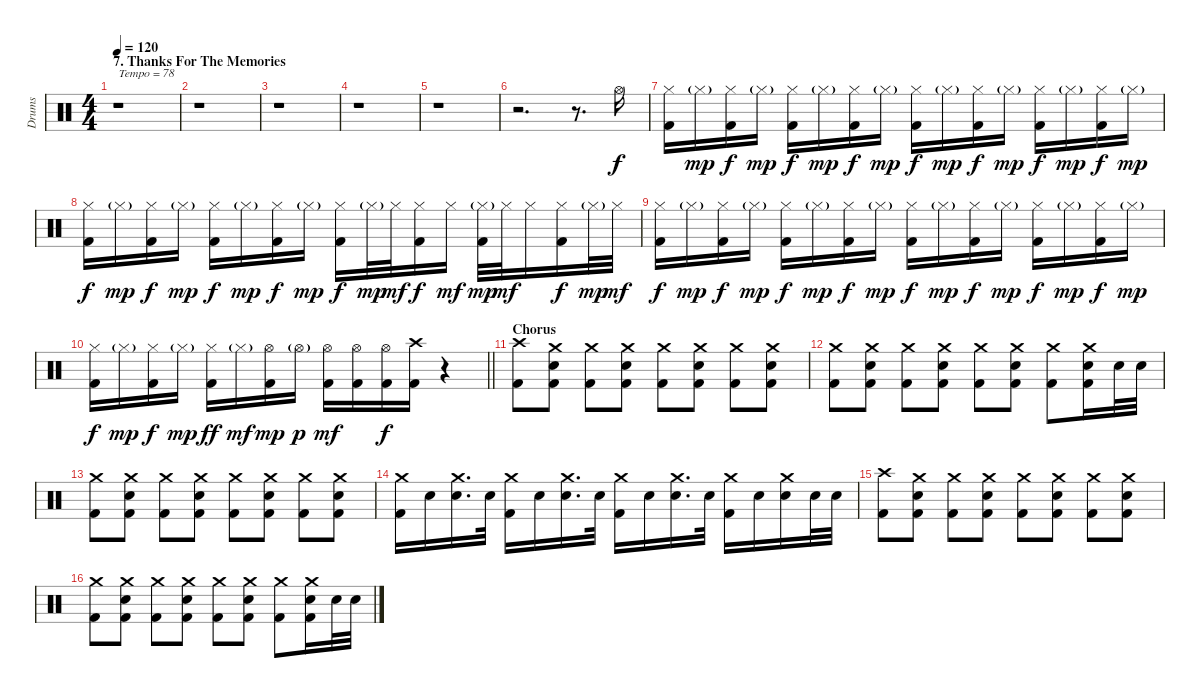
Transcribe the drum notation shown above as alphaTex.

\track ("Drums" "Drums") {instrument percussion}
\staff {score}
\articulation defaults
\ts (4 4)
\section ("" "7. Thanks For The Memories")
\tempo 120
\tempo 78
\tempo 120
\clef neutral
\ks c
r.1{txt "Tempo = 78" dy f} |
r.1 |
r.1 |
r.1 |
r.1 |
r.2{d} r.8{d} "Hi-Hat (open)".16 |
("Hi-Hat (closed)" "Kick (hit) 2").16 "Hi-Hat (closed)"{g}.16{dy mp} ("Hi-Hat (closed)" "Kick (hit) 2").16{dy f} "Hi-Hat (closed)"{g}.16{dy mp} ("Hi-Hat (closed)" "Kick (hit) 2").16{dy f} "Hi-Hat (closed)"{g}.16{dy mp} ("Hi-Hat (closed)" "Kick (hit) 2").16{dy f} "Hi-Hat (closed)"{g}.16{dy mp} ("Hi-Hat (closed)" "Kick (hit) 2").16{dy f} "Hi-Hat (closed)"{g}.16{dy mp} ("Hi-Hat (closed)" "Kick (hit) 2").16{dy f} "Hi-Hat (closed)"{g}.16{dy mp} ("Hi-Hat (closed)" "Kick (hit) 2").16{dy f} "Hi-Hat (closed)"{g}.16{dy mp} ("Hi-Hat (closed)" "Kick (hit) 2").16{dy f} "Hi-Hat (closed)"{g}.16{dy mp} |
("Hi-Hat (closed)" "Kick (hit) 2").16{dy f} "Hi-Hat (closed)"{g}.16{dy mp} ("Hi-Hat (closed)" "Kick (hit) 2").16{dy f} "Hi-Hat (closed)"{g}.16{dy mp} ("Hi-Hat (closed)" "Kick (hit) 2").16{dy f} "Hi-Hat (closed)"{g}.16{dy mp} ("Hi-Hat (closed)" "Kick (hit) 2").16{dy f} "Hi-Hat (closed)"{g}.16{dy mp} ("Hi-Hat (closed)" "Kick (hit) 2").16{dy f} "Hi-Hat (closed)"{g}.32{dy mp} "Hi-Hat (closed)".32{dy mf} ("Hi-Hat (closed)" "Kick (hit) 2").16{dy f} "Hi-Hat (closed)".16{dy mf} ("Hi-Hat (closed)"{g} "Kick (hit) 2").32{dy mp} "Hi-Hat (closed)".32{dy mf} "Hi-Hat (closed)".16 ("Hi-Hat (closed)" "Kick (hit) 2").16{dy f} "Hi-Hat (closed)"{g}.32{dy mp} "Hi-Hat (closed)".32{dy mf} |
("Hi-Hat (closed)" "Kick (hit) 2").16{dy f} "Hi-Hat (closed)"{g}.16{dy mp} ("Hi-Hat (closed)" "Kick (hit) 2").16{dy f} "Hi-Hat (closed)"{g}.16{dy mp} ("Hi-Hat (closed)" "Kick (hit) 2").16{dy f} "Hi-Hat (closed)"{g}.16{dy mp} ("Hi-Hat (closed)" "Kick (hit) 2").16{dy f} "Hi-Hat (closed)"{g}.16{dy mp} ("Hi-Hat (closed)" "Kick (hit) 2").16{dy f} "Hi-Hat (closed)"{g}.16{dy mp} ("Hi-Hat (closed)" "Kick (hit) 2").16{dy f} "Hi-Hat (closed)"{g}.16{dy mp} ("Hi-Hat (closed)" "Kick (hit) 2").16{dy f} "Hi-Hat (closed)"{g}.16{dy mp} ("Hi-Hat (closed)" "Kick (hit) 2").16{dy f} "Hi-Hat (closed)"{g}.16{dy mp} |
\barLineRight lightlight
("Hi-Hat (closed)" "Kick (hit) 2").16{dy f} "Hi-Hat (closed)"{g}.16{dy mp} ("Hi-Hat (closed)" "Kick (hit) 2").16{dy f} "Hi-Hat (closed)"{g}.16{dy mp} ("Hi-Hat (closed)" "Kick (hit) 2").16{dy ff} "Hi-Hat (closed)"{g}.16{dy mf} ("Hi-Hat (open)" "Kick (hit) 2").16{dy mp} "Hi-Hat (open)"{g}.16{dy p} ("Hi-Hat (open)" "Kick (hit) 2").16{dy mf} ("Hi-Hat (open)" "Kick (hit) 2").16 ("Hi-Hat (open)" "Kick (hit) 2").16{dy f} ("Crash high (hit)" "Kick (hit) 2").16 r.4 |
\section ("" "Chorus")
("Crash high (hit)" "Kick (hit) 2").8 ("Crash medium (hit)" "Snare (hit) 2" "Kick (hit) 2").8 ("Crash medium (hit)" "Kick (hit) 2").8 ("Crash medium (hit)" "Snare (hit) 2" "Kick (hit) 2").8 ("Crash medium (hit)" "Kick (hit) 2").8 ("Crash medium (hit)" "Snare (hit) 2" "Kick (hit) 2").8 ("Crash medium (hit)" "Kick (hit) 2").8 ("Crash medium (hit)" "Snare (hit) 2" "Kick (hit) 2").8 |
("Crash medium (hit)" "Kick (hit) 2").8 ("Crash medium (hit)" "Snare (hit) 2" "Kick (hit) 2").8 ("Crash medium (hit)" "Kick (hit) 2").8 ("Crash medium (hit)" "Snare (hit) 2" "Kick (hit) 2").8 ("Crash medium (hit)" "Kick (hit) 2").8 ("Crash medium (hit)" "Snare (hit) 2" "Kick (hit) 2").8 ("Crash medium (hit)" "Kick (hit) 2").8 ("Crash medium (hit)" "Snare (hit) 2" "Kick (hit) 2").16 "Snare (hit) 2".32 "Snare (hit) 2".32 |
("Crash medium (hit)" "Kick (hit) 2").8 ("Crash medium (hit)" "Snare (hit) 2" "Kick (hit) 2").8 ("Crash medium (hit)" "Kick (hit) 2").8 ("Crash medium (hit)" "Snare (hit) 2" "Kick (hit) 2").8 ("Crash medium (hit)" "Kick (hit) 2").8 ("Crash medium (hit)" "Snare (hit) 2" "Kick (hit) 2").8 ("Crash medium (hit)" "Kick (hit) 2").8 ("Crash medium (hit)" "Snare (hit) 2" "Kick (hit) 2").8 |
("Crash medium (hit)" "Kick (hit) 2").16 "Snare (hit) 2".16 ("Crash medium (hit)" "Snare (hit) 2").16{d} "Snare (hit) 2".32 ("Crash medium (hit)" "Kick (hit) 2").16 "Snare (hit) 2".16 ("Crash medium (hit)" "Snare (hit) 2").16{d} "Snare (hit) 2".32 ("Crash medium (hit)" "Kick (hit) 2").16 "Snare (hit) 2".16 ("Crash medium (hit)" "Snare (hit) 2").16{d} "Snare (hit) 2".32 ("Crash medium (hit)" "Kick (hit) 2").16 "Snare (hit) 2".16 ("Crash medium (hit)" "Snare (hit) 2").16 "Snare (hit) 2".32 "Snare (hit) 2".32 |
("Crash high (hit)" "Kick (hit) 2").8 ("Crash medium (hit)" "Snare (hit) 2" "Kick (hit) 2").8 ("Crash medium (hit)" "Kick (hit) 2").8 ("Crash medium (hit)" "Snare (hit) 2" "Kick (hit) 2").8 ("Crash medium (hit)" "Kick (hit) 2").8 ("Crash medium (hit)" "Snare (hit) 2" "Kick (hit) 2").8 ("Crash medium (hit)" "Kick (hit) 2").8 ("Crash medium (hit)" "Snare (hit) 2" "Kick (hit) 2").8 |
("Crash medium (hit)" "Kick (hit) 2").8 ("Crash medium (hit)" "Snare (hit) 2" "Kick (hit) 2").8 ("Crash medium (hit)" "Kick (hit) 2").8 ("Crash medium (hit)" "Snare (hit) 2" "Kick (hit) 2").8 ("Crash medium (hit)" "Kick (hit) 2").8 ("Crash medium (hit)" "Snare (hit) 2" "Kick (hit) 2").8 ("Crash medium (hit)" "Kick (hit) 2").8 ("Crash medium (hit)" "Snare (hit) 2" "Kick (hit) 2").16 "Snare (hit) 2".32 "Snare (hit) 2".32
